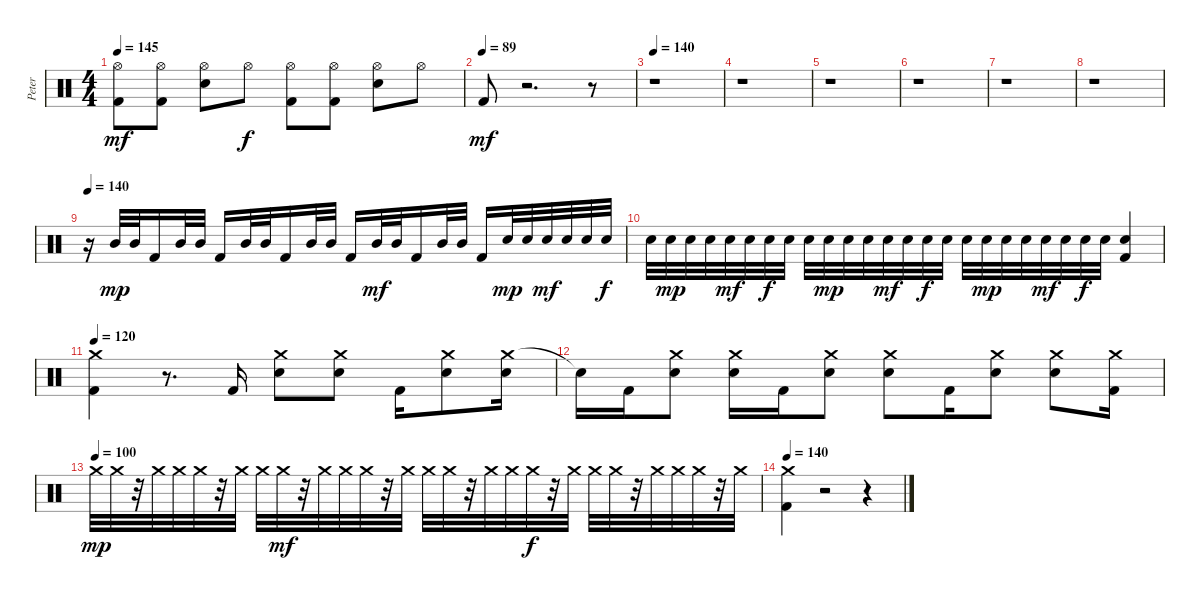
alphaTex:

\track ("Peter" "Peter") {instrument percussion}
\staff {score}
\articulation defaults
\ts (4 4)
\tempo 145
\clef neutral
\ks c
("Hi-Hat (open)" "Kick (hit) 2").8{dy mf} ("Hi-Hat (open)" "Kick (hit) 2").8 ("Hi-Hat (open)" "Electric Snare (hit)").8 "Hi-Hat (open)".8{dy f} ("Hi-Hat (open)" "Kick (hit) 2").8 ("Hi-Hat (open)" "Kick (hit) 2").8 ("Hi-Hat (open)" "Electric Snare (hit)").8 "Hi-Hat (open)".8 |
\tempo (89)
"Kick (hit) 2".8{dy mf} r.2{d} r.8 |
\tempo 140
r.1 |
r.1 |
r.1 |
r.1 |
r.1 |
r.1 |
\tempo 140
r.16 "Mid Tom (hit)".32{dy mp} "Mid Tom (hit)".32 "Kick (hit) 2".16 "Mid Tom (hit)".32 "Mid Tom (hit)".32 "Kick (hit) 2".16 "Mid Tom (hit)".32 "Mid Tom (hit)".32 "Kick (hit) 2".16 "Mid Tom (hit)".32 "Mid Tom (hit)".32 "Kick (hit) 2".16 "Mid Tom (hit)".32{dy mf} "Mid Tom (hit)".32 "Kick (hit) 2".16 "Mid Tom (hit)".32 "Mid Tom (hit)".32 "Kick (hit) 2".16 "Electric Snare (hit)".32{dy mp} "Electric Snare (hit)".32 "Electric Snare (hit)".32{dy mf} "Electric Snare (hit)".32 "Electric Snare (hit)".32 "Electric Snare (hit)".32{dy f} |
"Electric Snare (hit)".32 "Electric Snare (hit)".32{dy mp} "Electric Snare (hit)".32 "Electric Snare (hit)".32 "Electric Snare (hit)".32{dy mf} "Electric Snare (hit)".32 "Electric Snare (hit)".32{dy f} "Electric Snare (hit)".32 "Electric Snare (hit)".32 "Electric Snare (hit)".32{dy mp} "Electric Snare (hit)".32 "Electric Snare (hit)".32 "Electric Snare (hit)".32{dy mf} "Electric Snare (hit)".32 "Electric Snare (hit)".32{dy f} "Electric Snare (hit)".32 "Electric Snare (hit)".32 "Electric Snare (hit)".32{dy mp} "Electric Snare (hit)".32 "Electric Snare (hit)".32 "Electric Snare (hit)".32{dy mf} "Electric Snare (hit)".32 "Electric Snare (hit)".32{dy f} "Electric Snare (hit)".32 ("Kick (hit) 2" "Electric Snare (hit)").4 |
\tempo 120
("Crash medium (hit)" "Kick (hit) 2").4 r.8{d} "Kick (hit) 2".16 ("Crash medium (hit)" "Electric Snare (hit)").8 ("Crash medium (hit)" "Electric Snare (hit)").8 "Kick (hit) 2".16 ("Crash medium (hit)" "Electric Snare (hit)").8 ("Crash medium (hit)" "Electric Snare (hit)").16 |
"Snare (hit)"{t}.16 "Kick (hit) 2".16 ("Crash medium (hit)" "Electric Snare (hit)").8 ("Crash medium (hit)" "Electric Snare (hit)").16 "Kick (hit) 2".16 ("Crash medium (hit)" "Electric Snare (hit)").8 ("Crash medium (hit)" "Electric Snare (hit)").8 "Kick (hit) 2".16 ("Crash medium (hit)" "Electric Snare (hit)").8 ("Crash medium (hit)" "Electric Snare (hit)").8 ("Crash medium (hit)" "Kick (hit) 2").16 |
\tempo (100)
"Crash medium (hit)".32{dy mp} "Crash medium (hit)".32 r.32 "Crash medium (hit)".32 "Crash medium (hit)".32 "Crash medium (hit)".32 r.32 "Crash medium (hit)".32 "Crash medium (hit)".32 "Crash medium (hit)".32{dy mf} r.32 "Crash medium (hit)".32 "Crash medium (hit)".32 "Crash medium (hit)".32 r.32 "Crash medium (hit)".32 "Crash medium (hit)".32 "Crash medium (hit)".32 r.32 "Crash medium (hit)".32 "Crash medium (hit)".32 "Crash medium (hit)".32{dy f} r.32 "Crash medium (hit)".32 "Crash medium (hit)".32 "Crash medium (hit)".32 r.32 "Crash medium (hit)".32 "Crash medium (hit)".32 "Crash medium (hit)".32 r.32 "Crash medium (hit)".32 |
\tempo 140
("Crash medium (hit)" "Kick (hit) 2").4 r.2 r.4
